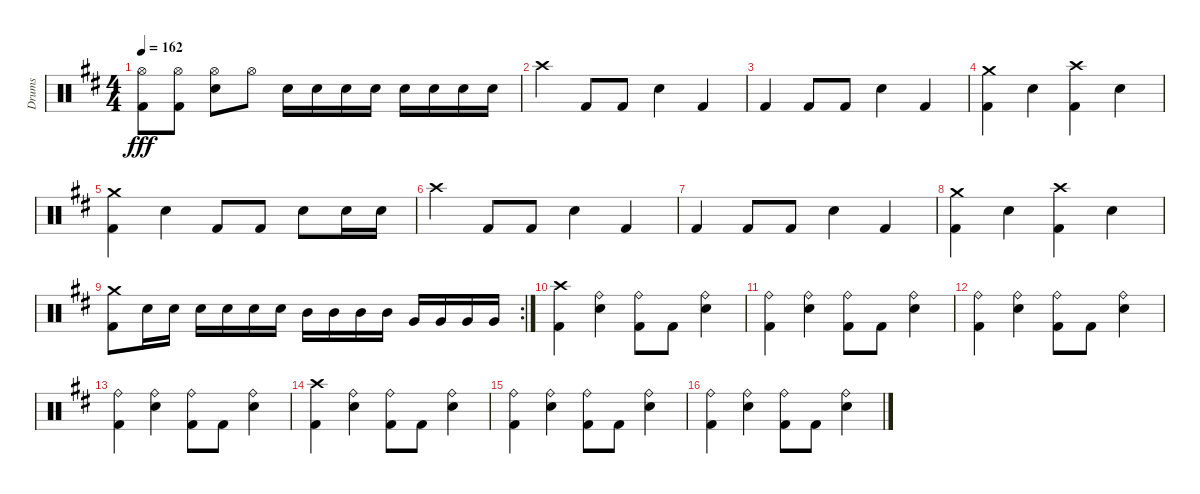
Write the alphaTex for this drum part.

\track ("Drums" "Drums") {instrument percussion}
\staff {score}
\articulation defaults
\ts (4 4)
\tempo 162
\clef neutral
\ks d
("Hi-Hat (open)" "Kick (hit) 2").8{dy fff} ("Hi-Hat (open)" "Kick (hit) 2").8 ("Hi-Hat (open)" "Snare (hit) 2").8 "Hi-Hat (open)".8 "Snare (hit) 2".16 "Snare (hit) 2".16 "Snare (hit) 2".16 "Snare (hit) 2".16 "Snare (hit) 2".16 "Snare (hit) 2".16 "Snare (hit) 2".16 "Snare (hit) 2".16 |
"Crash high (hit)".4 "Kick (hit) 2".8 "Kick (hit) 2".8 "Snare (hit) 2".4 "Kick (hit) 2".4 |
"Kick (hit) 2".4 "Kick (hit) 2".8 "Kick (hit) 2".8 "Snare (hit) 2".4 "Kick (hit) 2".4 |
("Crash medium (hit)" "Kick (hit) 2").4 "Snare (hit) 2".4 ("Crash high (hit)" "Kick (hit) 2").4 "Snare (hit) 2".4 |
("Crash medium (hit)" "Kick (hit) 2").4 "Snare (hit) 2".4 "Kick (hit) 2".8 "Kick (hit) 2".8 "Snare (hit) 2".8 "Snare (hit) 2".16 "Snare (hit) 2".16 |
"Crash high (hit)".4 "Kick (hit) 2".8 "Kick (hit) 2".8 "Snare (hit) 2".4 "Kick (hit) 2".4 |
"Kick (hit) 2".4 "Kick (hit) 2".8 "Kick (hit) 2".8 "Snare (hit) 2".4 "Kick (hit) 2".4 |
("Crash medium (hit)" "Kick (hit) 2").4 "Snare (hit) 2".4 ("Crash high (hit)" "Kick (hit) 2").4 "Snare (hit) 2".4 |
\rc 2
("Crash medium (hit)" "Kick (hit) 2").8 "Snare (hit) 2".16 "Snare (hit) 2".16 "Snare (hit) 2".16 "Snare (hit) 2".16 "Snare (hit) 2".16 "Snare (hit) 2".16 "Mid Tom (hit)".16 "Mid Tom (hit)".16 "Mid Tom (hit)".16 "Mid Tom (hit)".16 "Very Low Tom (hit)".16 "Very Low Tom (hit)".16 "Very Low Tom (hit)".16 "Very Low Tom (hit)".16 |
("Crash high (hit)" "Kick (hit) 2").4 ("Ride (bell)" "Snare (hit) 2").4 ("Ride (bell)" "Kick (hit) 2").8 "Kick (hit) 2".8 ("Ride (bell)" "Snare (hit) 2").4 |
("Ride (bell)" "Kick (hit) 2").4 ("Ride (bell)" "Snare (hit) 2").4 ("Ride (bell)" "Kick (hit) 2").8 "Kick (hit) 2".8 ("Ride (bell)" "Snare (hit) 2").4 |
("Ride (bell)" "Kick (hit) 2").4 ("Ride (bell)" "Snare (hit) 2").4 ("Ride (bell)" "Kick (hit) 2").8 "Kick (hit) 2".8 ("Ride (bell)" "Snare (hit) 2").4 |
("Ride (bell)" "Kick (hit) 2").4 ("Ride (bell)" "Snare (hit) 2").4 ("Ride (bell)" "Kick (hit) 2").8 "Kick (hit) 2".8 ("Ride (bell)" "Snare (hit) 2").4 |
("Crash high (hit)" "Kick (hit) 2").4 ("Ride (bell)" "Snare (hit) 2").4 ("Ride (bell)" "Kick (hit) 2").8 "Kick (hit) 2".8 ("Ride (bell)" "Snare (hit) 2").4 |
("Ride (bell)" "Kick (hit) 2").4 ("Ride (bell)" "Snare (hit) 2").4 ("Ride (bell)" "Kick (hit) 2").8 "Kick (hit) 2".8 ("Ride (bell)" "Snare (hit) 2").4 |
("Ride (bell)" "Kick (hit) 2").4 ("Ride (bell)" "Snare (hit) 2").4 ("Ride (bell)" "Kick (hit) 2").8 "Kick (hit) 2".8 ("Ride (bell)" "Snare (hit) 2").4
